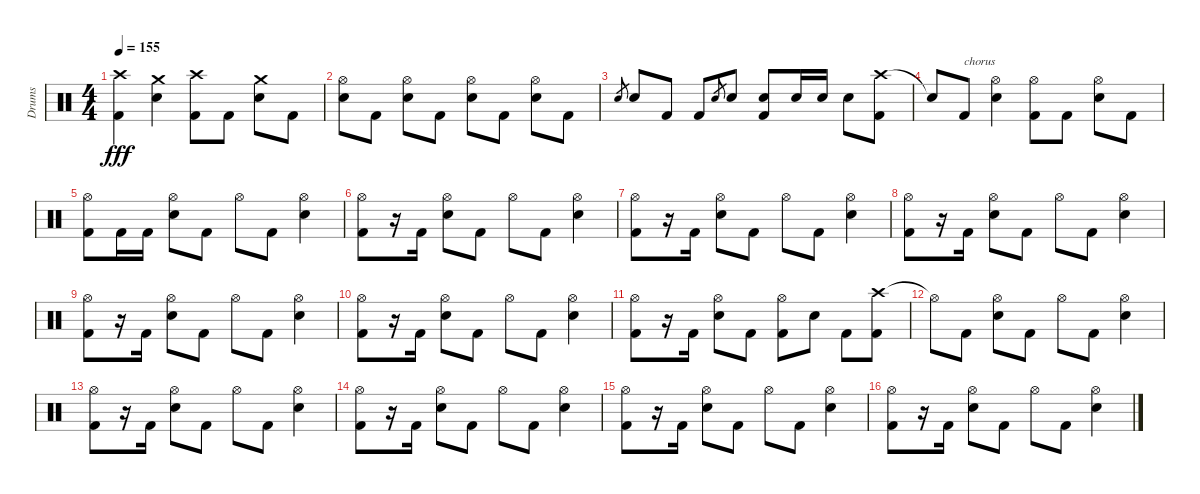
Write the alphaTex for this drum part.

\track ("Drums" "Drums") {instrument percussion}
\staff {score}
\articulation defaults
\ts (4 4)
\tempo 155
\clef neutral
\ks c
("Crash high (hit)" "Kick (hit) 2").4{dy fff} ("Crash medium (hit)" "Electric Snare (hit)").4 ("Crash high (hit)" "Kick (hit) 2").8 "Kick (hit) 2".8 ("Crash medium (hit)" "Electric Snare (hit)").8 "Kick (hit) 2".8 |
("Hi-Hat (open)" "Electric Snare (hit)").8 "Kick (hit) 2".8 ("Hi-Hat (open)" "Electric Snare (hit)").8 "Kick (hit) 2".8 ("Hi-Hat (open)" "Electric Snare (hit)").8 "Kick (hit) 2".8 ("Hi-Hat (open)" "Electric Snare (hit)").8 "Kick (hit) 2".8 |
"Electric Snare (hit)".8{gr} "Electric Snare (hit)".8 "Kick (hit) 2".8 "Kick (hit) 2".8 "Electric Snare (hit)".8{gr} "Electric Snare (hit)".8 ("Electric Snare (hit)" "Kick (hit) 2").8 "Electric Snare (hit)".16 "Electric Snare (hit)".16 "Electric Snare (hit)".8 ("Crash high (hit)" "Kick (hit) 2").8 |
"Snare (hit)"{t}.8 "Kick (hit) 2".8{txt "chorus"} ("Hi-Hat (open)" "Electric Snare (hit)").4 ("Hi-Hat (open)" "Kick (hit) 2").8 "Kick (hit) 2".8 ("Hi-Hat (open)" "Electric Snare (hit)").8 "Kick (hit) 2".8 |
("Hi-Hat (open)" "Kick (hit) 2").8 "Kick (hit) 2".16 "Kick (hit) 2".16 ("Hi-Hat (open)" "Electric Snare (hit)").8 "Kick (hit) 2".8 "Hi-Hat (open)".8 "Kick (hit) 2".8 ("Hi-Hat (open)" "Electric Snare (hit)").4 |
("Hi-Hat (open)" "Kick (hit) 2").8 r.16 "Kick (hit) 2".16 ("Hi-Hat (open)" "Electric Snare (hit)").8 "Kick (hit) 2".8 "Hi-Hat (open)".8 "Kick (hit) 2".8 ("Hi-Hat (open)" "Electric Snare (hit)").4 |
("Hi-Hat (open)" "Kick (hit) 2").8 r.16 "Kick (hit) 2".16 ("Hi-Hat (open)" "Electric Snare (hit)").8 "Kick (hit) 2".8 "Hi-Hat (open)".8 "Kick (hit) 2".8 ("Hi-Hat (open)" "Electric Snare (hit)").4 |
("Hi-Hat (open)" "Kick (hit) 2").8 r.16 "Kick (hit) 2".16 ("Hi-Hat (open)" "Electric Snare (hit)").8 "Kick (hit) 2".8 "Hi-Hat (open)".8 "Kick (hit) 2".8 ("Hi-Hat (open)" "Electric Snare (hit)").4 |
("Hi-Hat (open)" "Kick (hit) 2").8 r.16 "Kick (hit) 2".16 ("Hi-Hat (open)" "Electric Snare (hit)").8 "Kick (hit) 2".8 "Hi-Hat (open)".8 "Kick (hit) 2".8 ("Hi-Hat (open)" "Electric Snare (hit)").4 |
("Hi-Hat (open)" "Kick (hit) 2").8 r.16 "Kick (hit) 2".16 ("Hi-Hat (open)" "Electric Snare (hit)").8 "Kick (hit) 2".8 "Hi-Hat (open)".8 "Kick (hit) 2".8 ("Hi-Hat (open)" "Electric Snare (hit)").4 |
("Hi-Hat (open)" "Kick (hit) 2").8 r.16 "Kick (hit) 2".16 ("Hi-Hat (open)" "Electric Snare (hit)").8 "Kick (hit) 2".8 ("Hi-Hat (open)" "Kick (hit) 2").8 "Electric Snare (hit)".8 "Kick (hit) 2".8 ("Crash high (hit)" "Kick (hit) 2").8 |
"Hi-Hat (open)"{t}.8 "Kick (hit) 2".8 ("Hi-Hat (open)" "Electric Snare (hit)").8 "Kick (hit) 2".8 "Hi-Hat (open)".8 "Kick (hit) 2".8 ("Hi-Hat (open)" "Electric Snare (hit)").4 |
("Hi-Hat (open)" "Kick (hit) 2").8 r.16 "Kick (hit) 2".16 ("Hi-Hat (open)" "Electric Snare (hit)").8 "Kick (hit) 2".8 "Hi-Hat (open)".8 "Kick (hit) 2".8 ("Hi-Hat (open)" "Electric Snare (hit)").4 |
("Hi-Hat (open)" "Kick (hit) 2").8 r.16 "Kick (hit) 2".16 ("Hi-Hat (open)" "Electric Snare (hit)").8 "Kick (hit) 2".8 "Hi-Hat (open)".8 "Kick (hit) 2".8 ("Hi-Hat (open)" "Electric Snare (hit)").4 |
("Hi-Hat (open)" "Kick (hit) 2").8 r.16 "Kick (hit) 2".16 ("Hi-Hat (open)" "Electric Snare (hit)").8 "Kick (hit) 2".8 "Hi-Hat (open)".8 "Kick (hit) 2".8 ("Hi-Hat (open)" "Electric Snare (hit)").4 |
("Hi-Hat (open)" "Kick (hit) 2").8 r.16 "Kick (hit) 2".16 ("Hi-Hat (open)" "Electric Snare (hit)").8 "Kick (hit) 2".8 "Hi-Hat (open)".8 "Kick (hit) 2".8 ("Hi-Hat (open)" "Electric Snare (hit)").4
